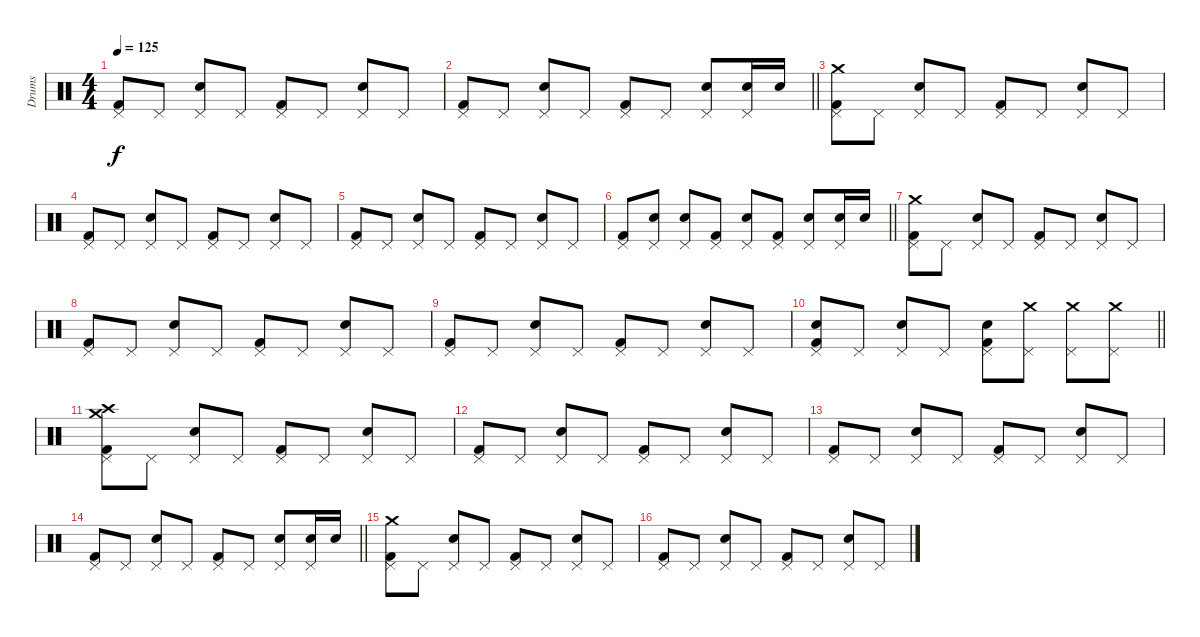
\track ("Drums" "Drums") {instrument percussion}
\staff {score}
\articulation defaults
\ts (4 4)
\tempo 125
\clef neutral
\ks c
("Pedal Hi-Hat (hit)" "Kick (hit) 2").8{dy f} "Pedal Hi-Hat (hit)".8 ("Pedal Hi-Hat (hit)" "Electric Snare (hit)").8 "Pedal Hi-Hat (hit)".8 ("Pedal Hi-Hat (hit)" "Kick (hit) 2").8 "Pedal Hi-Hat (hit)".8 ("Pedal Hi-Hat (hit)" "Electric Snare (hit)").8 "Pedal Hi-Hat (hit)".8 |
\barLineRight lightlight
("Pedal Hi-Hat (hit)" "Kick (hit) 2").8 "Pedal Hi-Hat (hit)".8 ("Pedal Hi-Hat (hit)" "Electric Snare (hit)").8 "Pedal Hi-Hat (hit)".8 ("Pedal Hi-Hat (hit)" "Kick (hit) 2").8 "Pedal Hi-Hat (hit)".8 ("Pedal Hi-Hat (hit)" "Electric Snare (hit)").8 ("Pedal Hi-Hat (hit)" "Electric Snare (hit)").16 "Electric Snare (hit)".16 |
("Pedal Hi-Hat (hit)" "Crash medium (hit)" "Kick (hit) 2").8 "Pedal Hi-Hat (hit)".8 ("Pedal Hi-Hat (hit)" "Electric Snare (hit)").8 "Pedal Hi-Hat (hit)".8 ("Pedal Hi-Hat (hit)" "Kick (hit) 2").8 "Pedal Hi-Hat (hit)".8 ("Pedal Hi-Hat (hit)" "Electric Snare (hit)").8 "Pedal Hi-Hat (hit)".8 |
("Pedal Hi-Hat (hit)" "Kick (hit) 2").8 "Pedal Hi-Hat (hit)".8 ("Pedal Hi-Hat (hit)" "Electric Snare (hit)").8 "Pedal Hi-Hat (hit)".8 ("Pedal Hi-Hat (hit)" "Kick (hit) 2").8 "Pedal Hi-Hat (hit)".8 ("Pedal Hi-Hat (hit)" "Electric Snare (hit)").8 "Pedal Hi-Hat (hit)".8 |
("Pedal Hi-Hat (hit)" "Kick (hit) 2").8 "Pedal Hi-Hat (hit)".8 ("Pedal Hi-Hat (hit)" "Electric Snare (hit)").8 "Pedal Hi-Hat (hit)".8 ("Pedal Hi-Hat (hit)" "Kick (hit) 2").8 "Pedal Hi-Hat (hit)".8 ("Pedal Hi-Hat (hit)" "Electric Snare (hit)").8 "Pedal Hi-Hat (hit)".8 |
\barLineRight lightlight
("Pedal Hi-Hat (hit)" "Kick (hit) 2").8 ("Pedal Hi-Hat (hit)" "Electric Snare (hit)").8 ("Pedal Hi-Hat (hit)" "Electric Snare (hit)").8 ("Pedal Hi-Hat (hit)" "Kick (hit) 2").8 ("Pedal Hi-Hat (hit)" "Electric Snare (hit)").8 ("Pedal Hi-Hat (hit)" "Kick (hit) 2").8 ("Pedal Hi-Hat (hit)" "Electric Snare (hit)").8 ("Pedal Hi-Hat (hit)" "Electric Snare (hit)").16 "Electric Snare (hit)".16 |
("Pedal Hi-Hat (hit)" "Crash medium (hit)" "Kick (hit) 2").8 "Pedal Hi-Hat (hit)".8 ("Pedal Hi-Hat (hit)" "Electric Snare (hit)").8 "Pedal Hi-Hat (hit)".8 ("Pedal Hi-Hat (hit)" "Kick (hit) 2").8 "Pedal Hi-Hat (hit)".8 ("Pedal Hi-Hat (hit)" "Electric Snare (hit)").8 "Pedal Hi-Hat (hit)".8 |
("Pedal Hi-Hat (hit)" "Kick (hit) 2").8 "Pedal Hi-Hat (hit)".8 ("Pedal Hi-Hat (hit)" "Electric Snare (hit)").8 "Pedal Hi-Hat (hit)".8 ("Pedal Hi-Hat (hit)" "Kick (hit) 2").8 "Pedal Hi-Hat (hit)".8 ("Pedal Hi-Hat (hit)" "Electric Snare (hit)").8 "Pedal Hi-Hat (hit)".8 |
("Pedal Hi-Hat (hit)" "Kick (hit) 2").8 "Pedal Hi-Hat (hit)".8 ("Pedal Hi-Hat (hit)" "Electric Snare (hit)").8 "Pedal Hi-Hat (hit)".8 ("Pedal Hi-Hat (hit)" "Kick (hit) 2").8 "Pedal Hi-Hat (hit)".8 ("Pedal Hi-Hat (hit)" "Electric Snare (hit)").8 "Pedal Hi-Hat (hit)".8 |
\barLineRight lightlight
("Pedal Hi-Hat (hit)" "Electric Snare (hit)" "Kick (hit) 2").8 "Pedal Hi-Hat (hit)".8 ("Pedal Hi-Hat (hit)" "Electric Snare (hit)").8 "Pedal Hi-Hat (hit)".8 ("Pedal Hi-Hat (hit)" "Electric Snare (hit)" "Kick (hit) 2").8 ("Pedal Hi-Hat (hit)" "Crash medium (hit)").8 ("Pedal Hi-Hat (hit)" "Crash medium (hit)").8 ("Pedal Hi-Hat (hit)" "Crash medium (hit)").8 |
("Pedal Hi-Hat (hit)" "Crash medium (hit)" "Crash high (hit)" "Kick (hit) 2").8 "Pedal Hi-Hat (hit)".8 ("Pedal Hi-Hat (hit)" "Electric Snare (hit)").8 "Pedal Hi-Hat (hit)".8 ("Pedal Hi-Hat (hit)" "Kick (hit) 2").8 "Pedal Hi-Hat (hit)".8 ("Pedal Hi-Hat (hit)" "Electric Snare (hit)").8 "Pedal Hi-Hat (hit)".8 |
("Pedal Hi-Hat (hit)" "Kick (hit) 2").8 "Pedal Hi-Hat (hit)".8 ("Pedal Hi-Hat (hit)" "Electric Snare (hit)").8 "Pedal Hi-Hat (hit)".8 ("Pedal Hi-Hat (hit)" "Kick (hit) 2").8 "Pedal Hi-Hat (hit)".8 ("Pedal Hi-Hat (hit)" "Electric Snare (hit)").8 "Pedal Hi-Hat (hit)".8 |
("Pedal Hi-Hat (hit)" "Kick (hit) 2").8 "Pedal Hi-Hat (hit)".8 ("Pedal Hi-Hat (hit)" "Electric Snare (hit)").8 "Pedal Hi-Hat (hit)".8 ("Pedal Hi-Hat (hit)" "Kick (hit) 2").8 "Pedal Hi-Hat (hit)".8 ("Pedal Hi-Hat (hit)" "Electric Snare (hit)").8 "Pedal Hi-Hat (hit)".8 |
\barLineRight lightlight
("Pedal Hi-Hat (hit)" "Kick (hit) 2").8 "Pedal Hi-Hat (hit)".8 ("Pedal Hi-Hat (hit)" "Electric Snare (hit)").8 "Pedal Hi-Hat (hit)".8 ("Pedal Hi-Hat (hit)" "Kick (hit) 2").8 "Pedal Hi-Hat (hit)".8 ("Pedal Hi-Hat (hit)" "Electric Snare (hit)").8 ("Pedal Hi-Hat (hit)" "Electric Snare (hit)").16 "Electric Snare (hit)".16 |
("Pedal Hi-Hat (hit)" "Crash medium (hit)" "Kick (hit) 2").8 "Pedal Hi-Hat (hit)".8 ("Pedal Hi-Hat (hit)" "Electric Snare (hit)").8 "Pedal Hi-Hat (hit)".8 ("Pedal Hi-Hat (hit)" "Kick (hit) 2").8 "Pedal Hi-Hat (hit)".8 ("Pedal Hi-Hat (hit)" "Electric Snare (hit)").8 "Pedal Hi-Hat (hit)".8 |
("Pedal Hi-Hat (hit)" "Kick (hit) 2").8 "Pedal Hi-Hat (hit)".8 ("Pedal Hi-Hat (hit)" "Electric Snare (hit)").8 "Pedal Hi-Hat (hit)".8 ("Pedal Hi-Hat (hit)" "Kick (hit) 2").8 "Pedal Hi-Hat (hit)".8 ("Pedal Hi-Hat (hit)" "Electric Snare (hit)").8 "Pedal Hi-Hat (hit)".8
